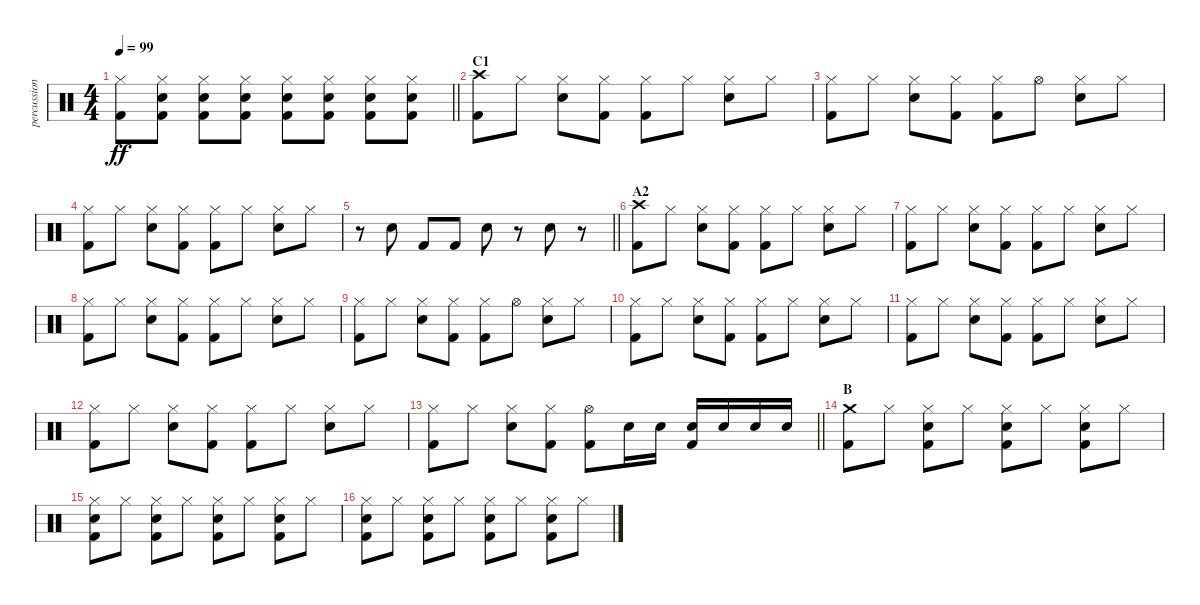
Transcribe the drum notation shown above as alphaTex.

\track ("percussion" "percussion") {instrument percussion}
\staff {score}
\articulation defaults
\ts (4 4)
\tempo 99
\clef neutral
\barLineRight lightlight
\ks c
("Hi-Hat (closed)" "Kick (hit) 2").8{dy ff} ("Snare (hit) 2" "Hi-Hat (closed)" "Kick (hit) 2").8 ("Snare (hit) 2" "Hi-Hat (closed)" "Kick (hit) 2").8 ("Snare (hit) 2" "Hi-Hat (closed)" "Kick (hit) 2").8 ("Snare (hit) 2" "Hi-Hat (closed)" "Kick (hit) 2").8 ("Snare (hit) 2" "Hi-Hat (closed)" "Kick (hit) 2").8 ("Snare (hit) 2" "Hi-Hat (closed)" "Kick (hit) 2").8 ("Snare (hit) 2" "Hi-Hat (closed)" "Kick (hit) 2").8 |
\section ("" "C1")
("Crash high (hit)" "Kick (hit) 2").8 "Hi-Hat (closed)".8 ("Snare (hit) 2" "Hi-Hat (closed)").8 ("Hi-Hat (closed)" "Kick (hit) 2").8 ("Hi-Hat (closed)" "Kick (hit) 2").8 "Hi-Hat (closed)".8 ("Snare (hit) 2" "Hi-Hat (closed)").8 "Hi-Hat (closed)".8 |
("Hi-Hat (closed)" "Kick (hit) 2").8 "Hi-Hat (closed)".8 ("Snare (hit) 2" "Hi-Hat (closed)").8 ("Hi-Hat (closed)" "Kick (hit) 2").8 ("Hi-Hat (closed)" "Kick (hit) 2").8 "Hi-Hat (open)".8 ("Snare (hit) 2" "Hi-Hat (closed)").8 "Hi-Hat (closed)".8 |
("Hi-Hat (closed)" "Kick (hit) 2").8 "Hi-Hat (closed)".8 ("Snare (hit) 2" "Hi-Hat (closed)").8 ("Hi-Hat (closed)" "Kick (hit) 2").8 ("Hi-Hat (closed)" "Kick (hit) 2").8 "Hi-Hat (closed)".8 ("Snare (hit) 2" "Hi-Hat (closed)").8 "Hi-Hat (closed)".8 |
\barLineRight lightlight
r.8 "Snare (hit) 2".8 "Kick (hit) 2".8 "Kick (hit) 2".8 "Snare (hit) 2".8 r.8 "Snare (hit) 2".8 r.8 |
\section ("" "A2")
("Crash high (hit)" "Kick (hit) 2").8 "Hi-Hat (closed)".8 ("Snare (hit) 2" "Hi-Hat (closed)").8 ("Hi-Hat (closed)" "Kick (hit) 2").8 ("Hi-Hat (closed)" "Kick (hit) 2").8 "Hi-Hat (closed)".8 ("Snare (hit) 2" "Hi-Hat (closed)").8 "Hi-Hat (closed)".8 |
("Hi-Hat (closed)" "Kick (hit) 2").8 "Hi-Hat (closed)".8 ("Snare (hit) 2" "Hi-Hat (closed)").8 ("Hi-Hat (closed)" "Kick (hit) 2").8 ("Hi-Hat (closed)" "Kick (hit) 2").8 "Hi-Hat (closed)".8 ("Snare (hit) 2" "Hi-Hat (closed)").8 "Hi-Hat (closed)".8 |
("Hi-Hat (closed)" "Kick (hit) 2").8 "Hi-Hat (closed)".8 ("Snare (hit) 2" "Hi-Hat (closed)").8 ("Hi-Hat (closed)" "Kick (hit) 2").8 ("Hi-Hat (closed)" "Kick (hit) 2").8 "Hi-Hat (closed)".8 ("Snare (hit) 2" "Hi-Hat (closed)").8 "Hi-Hat (closed)".8 |
("Hi-Hat (closed)" "Kick (hit) 2").8 "Hi-Hat (closed)".8 ("Snare (hit) 2" "Hi-Hat (closed)").8 ("Hi-Hat (closed)" "Kick (hit) 2").8 ("Hi-Hat (closed)" "Kick (hit) 2").8 "Hi-Hat (open)".8 ("Snare (hit) 2" "Hi-Hat (closed)").8 "Hi-Hat (closed)".8 |
("Hi-Hat (closed)" "Kick (hit) 2").8 "Hi-Hat (closed)".8 ("Snare (hit) 2" "Hi-Hat (closed)").8 ("Hi-Hat (closed)" "Kick (hit) 2").8 ("Hi-Hat (closed)" "Kick (hit) 2").8 "Hi-Hat (closed)".8 ("Snare (hit) 2" "Hi-Hat (closed)").8 "Hi-Hat (closed)".8 |
("Hi-Hat (closed)" "Kick (hit) 2").8 "Hi-Hat (closed)".8 ("Snare (hit) 2" "Hi-Hat (closed)").8 ("Hi-Hat (closed)" "Kick (hit) 2").8 ("Hi-Hat (closed)" "Kick (hit) 2").8 "Hi-Hat (closed)".8 ("Snare (hit) 2" "Hi-Hat (closed)").8 "Hi-Hat (closed)".8 |
("Hi-Hat (closed)" "Kick (hit) 2").8 "Hi-Hat (closed)".8 ("Snare (hit) 2" "Hi-Hat (closed)").8 ("Hi-Hat (closed)" "Kick (hit) 2").8 ("Hi-Hat (closed)" "Kick (hit) 2").8 "Hi-Hat (closed)".8 ("Snare (hit) 2" "Hi-Hat (closed)").8 "Hi-Hat (closed)".8 |
\barLineRight lightlight
("Hi-Hat (closed)" "Kick (hit) 2").8 "Hi-Hat (closed)".8 ("Snare (hit) 2" "Hi-Hat (closed)").8 ("Hi-Hat (closed)" "Kick (hit) 2").8 ("Hi-Hat (open)" "Kick (hit) 2").8 "Snare (hit) 2".16 "Snare (hit) 2".16 ("Snare (hit) 2" "Kick (hit) 2").16 "Snare (hit) 2".16 "Snare (hit) 2".16 "Snare (hit) 2".16 |
\section ("" "B")
("Crash medium (hit)" "Kick (hit) 2").8 "Hi-Hat (closed)".8 ("Snare (hit) 2" "Hi-Hat (closed)" "Kick (hit) 2").8 "Hi-Hat (closed)".8 ("Snare (hit) 2" "Hi-Hat (closed)" "Kick (hit) 2").8 "Hi-Hat (closed)".8 ("Snare (hit) 2" "Hi-Hat (closed)" "Kick (hit) 2").8 "Hi-Hat (closed)".8 |
("Snare (hit) 2" "Hi-Hat (closed)" "Kick (hit) 2").8 "Hi-Hat (closed)".8 ("Snare (hit) 2" "Hi-Hat (closed)" "Kick (hit) 2").8 "Hi-Hat (closed)".8 ("Snare (hit) 2" "Hi-Hat (closed)" "Kick (hit) 2").8 "Hi-Hat (closed)".8 ("Snare (hit) 2" "Hi-Hat (closed)" "Kick (hit) 2").8 "Hi-Hat (closed)".8 |
("Snare (hit) 2" "Hi-Hat (closed)" "Kick (hit) 2").8 "Hi-Hat (closed)".8 ("Snare (hit) 2" "Hi-Hat (closed)" "Kick (hit) 2").8 "Hi-Hat (closed)".8 ("Snare (hit) 2" "Hi-Hat (closed)" "Kick (hit) 2").8 "Hi-Hat (closed)".8 ("Snare (hit) 2" "Hi-Hat (closed)" "Kick (hit) 2").8 "Hi-Hat (closed)".8
